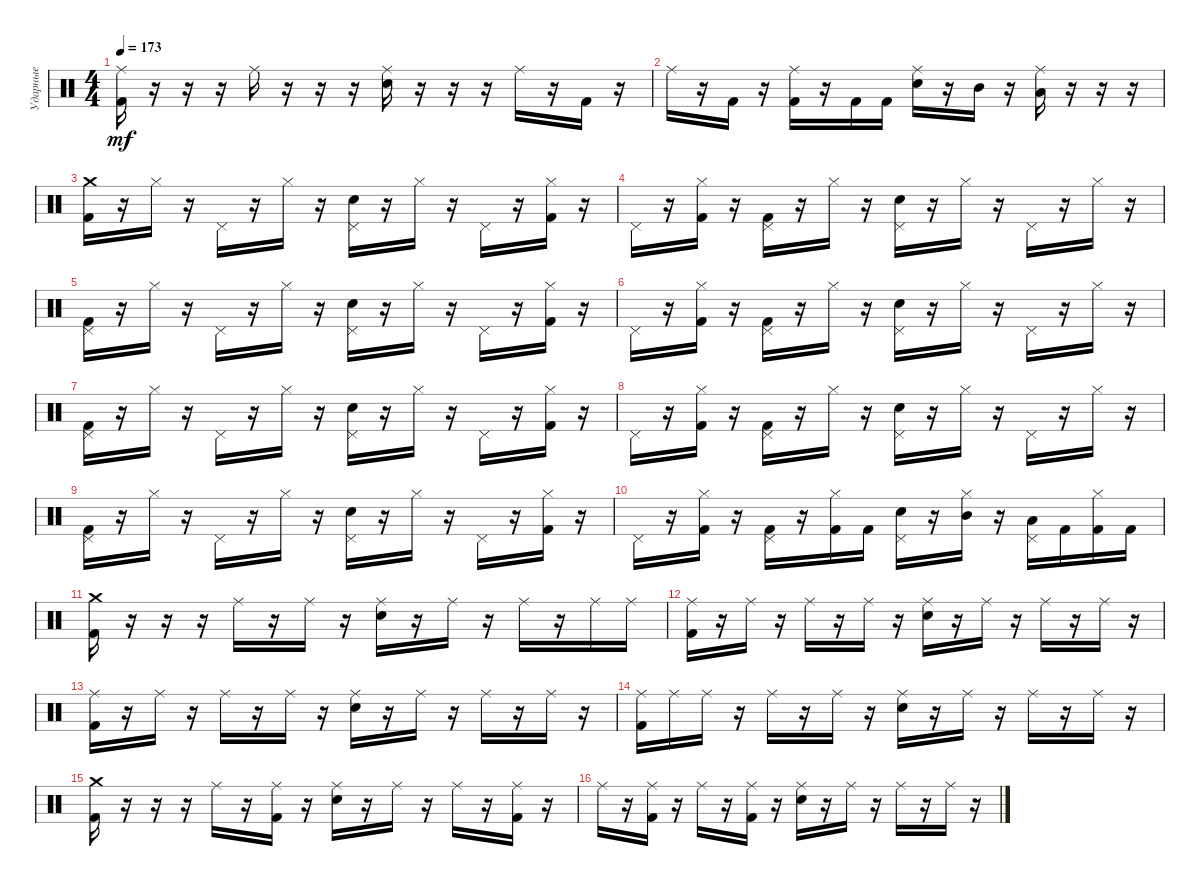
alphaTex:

\track ("Ударные" "Ударные") {instrument percussion}
\staff {score}
\articulation defaults
\ts (4 4)
\tempo 173
\clef neutral
\ks c
("Ride (middle)" "Kick (hit) 2").16{dy mf} r.16 r.16 r.16 "Ride (middle)".16 r.16 r.16 r.16 ("Ride (middle)" "Snare (hit) 2").16 r.16 r.16 r.16 "Ride (middle)".16 r.16 "Kick (hit) 2".16 r.16 |
"Ride (middle)".16 r.16 "Kick (hit) 2".16 r.16 ("Ride (middle)" "Kick (hit) 2").16 r.16 "Kick (hit) 2".16 "Kick (hit) 2".16 ("Ride (middle)" "Snare (hit) 2").16 r.16 "Mid Tom (hit)".16 r.16 ("Ride (middle)" "Low Tom (hit)").16 r.16 r.16 r.16 |
("Crash medium (hit)" "Kick (hit) 2").16 r.16 "Hi-Hat (closed)".16 r.16 "Pedal Hi-Hat (hit)".16 r.16 "Hi-Hat (closed)".16 r.16 ("Pedal Hi-Hat (hit)" "Snare (hit) 2").16 r.16 "Hi-Hat (closed)".16 r.16 "Pedal Hi-Hat (hit)".16 r.16 ("Hi-Hat (closed)" "Kick (hit) 2").16 r.16 |
"Pedal Hi-Hat (hit)".16 r.16 ("Hi-Hat (closed)" "Kick (hit) 2").16 r.16 ("Pedal Hi-Hat (hit)" "Kick (hit) 2").16 r.16 "Hi-Hat (closed)".16 r.16 ("Pedal Hi-Hat (hit)" "Snare (hit) 2").16 r.16 "Hi-Hat (closed)".16 r.16 "Pedal Hi-Hat (hit)".16 r.16 "Hi-Hat (closed)".16 r.16 |
("Pedal Hi-Hat (hit)" "Kick (hit) 2").16 r.16 "Hi-Hat (closed)".16 r.16 "Pedal Hi-Hat (hit)".16 r.16 "Hi-Hat (closed)".16 r.16 ("Pedal Hi-Hat (hit)" "Snare (hit) 2").16 r.16 "Hi-Hat (closed)".16 r.16 "Pedal Hi-Hat (hit)".16 r.16 ("Hi-Hat (closed)" "Kick (hit) 2").16 r.16 |
"Pedal Hi-Hat (hit)".16 r.16 ("Hi-Hat (closed)" "Kick (hit) 2").16 r.16 ("Pedal Hi-Hat (hit)" "Kick (hit) 2").16 r.16 "Hi-Hat (closed)".16 r.16 ("Pedal Hi-Hat (hit)" "Snare (hit) 2").16 r.16 "Hi-Hat (closed)".16 r.16 "Pedal Hi-Hat (hit)".16 r.16 "Hi-Hat (closed)".16 r.16 |
("Pedal Hi-Hat (hit)" "Kick (hit) 2").16 r.16 "Hi-Hat (closed)".16 r.16 "Pedal Hi-Hat (hit)".16 r.16 "Hi-Hat (closed)".16 r.16 ("Pedal Hi-Hat (hit)" "Snare (hit) 2").16 r.16 "Hi-Hat (closed)".16 r.16 "Pedal Hi-Hat (hit)".16 r.16 ("Hi-Hat (closed)" "Kick (hit) 2").16 r.16 |
"Pedal Hi-Hat (hit)".16 r.16 ("Hi-Hat (closed)" "Kick (hit) 2").16 r.16 ("Pedal Hi-Hat (hit)" "Kick (hit) 2").16 r.16 "Hi-Hat (closed)".16 r.16 ("Pedal Hi-Hat (hit)" "Snare (hit) 2").16 r.16 "Hi-Hat (closed)".16 r.16 "Pedal Hi-Hat (hit)".16 r.16 "Hi-Hat (closed)".16 r.16 |
("Pedal Hi-Hat (hit)" "Kick (hit) 2").16 r.16 "Hi-Hat (closed)".16 r.16 "Pedal Hi-Hat (hit)".16 r.16 "Hi-Hat (closed)".16 r.16 ("Pedal Hi-Hat (hit)" "Snare (hit) 2").16 r.16 "Hi-Hat (closed)".16 r.16 "Pedal Hi-Hat (hit)".16 r.16 ("Hi-Hat (closed)" "Kick (hit) 2").16 r.16 |
"Pedal Hi-Hat (hit)".16 r.16 ("Hi-Hat (closed)" "Kick (hit) 2").16 r.16 ("Pedal Hi-Hat (hit)" "Kick (hit) 2").16 r.16 ("Hi-Hat (closed)" "Kick (hit) 2").16 "Kick (hit) 2".16 ("Pedal Hi-Hat (hit)" "Snare (hit) 2").16 r.16 ("Hi-Hat (closed)" "Mid Tom (hit)").16 r.16 ("Pedal Hi-Hat (hit)" "Low Tom (hit)").16 "Kick (hit) 2".16 ("Hi-Hat (closed)" "Kick (hit) 2").16 "Kick (hit) 2".16 |
("Crash medium (hit)" "Kick (hit) 2").16 r.16 r.16 r.16 "Ride (middle)".16 r.16 "Ride (middle)".16 r.16 ("Ride (middle)" "Snare (hit) 2").16 r.16 "Ride (middle)".16 r.16 "Ride (middle)".16 r.16 "Ride (middle)".16 "Ride (middle)".16 |
("Ride (middle)" "Kick (hit) 2").16 r.16 "Ride (middle)".16 r.16 "Ride (middle)".16 r.16 "Ride (middle)".16 r.16 ("Ride (middle)" "Snare (hit) 2").16 r.16 "Ride (middle)".16 r.16 "Ride (middle)".16 r.16 "Ride (middle)".16 r.16 |
("Ride (middle)" "Kick (hit) 2").16 r.16 "Ride (middle)".16 r.16 "Ride (middle)".16 r.16 "Ride (middle)".16 r.16 ("Ride (middle)" "Snare (hit) 2").16 r.16 "Ride (middle)".16 r.16 "Ride (middle)".16 r.16 "Ride (middle)".16 r.16 |
("Ride (middle)" "Kick (hit) 2").16 "Ride (middle)".16 "Ride (middle)".16 r.16 "Ride (middle)".16 r.16 "Ride (middle)".16 r.16 ("Ride (middle)" "Snare (hit) 2").16 r.16 "Ride (middle)".16 r.16 "Ride (middle)".16 r.16 "Ride (middle)".16 r.16 |
("Crash medium (hit)" "Kick (hit) 2").16 r.16 r.16 r.16 "Ride (middle)".16 r.16 ("Ride (middle)" "Kick (hit) 2").16 r.16 ("Ride (middle)" "Snare (hit) 2").16 r.16 "Ride (middle)".16 r.16 "Ride (middle)".16 r.16 ("Ride (middle)" "Kick (hit) 2").16 r.16 |
"Ride (middle)".16 r.16 ("Ride (middle)" "Kick (hit) 2").16 r.16 "Ride (middle)".16 r.16 ("Ride (middle)" "Kick (hit) 2").16 r.16 ("Ride (middle)" "Snare (hit) 2").16 r.16 "Ride (middle)".16 r.16 "Ride (middle)".16 r.16 "Ride (middle)".16 r.16
